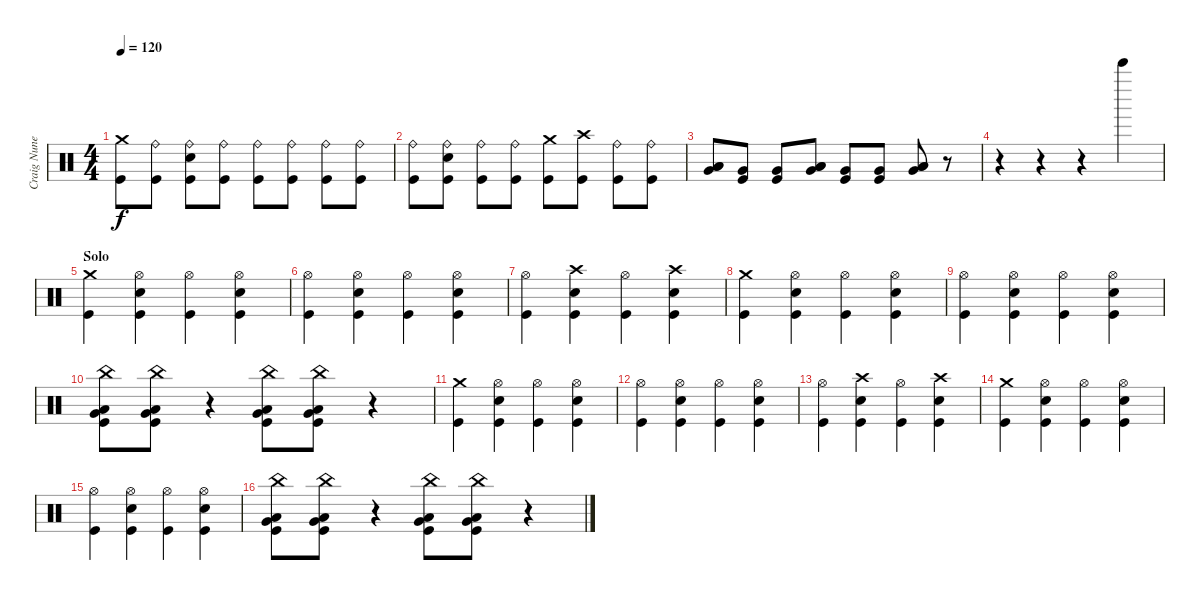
\track ("Craig Nunenmacher" "Craig Nune") {instrument percussion}
\staff {score}
\articulation defaults
\ts (4 4)
\tempo 120
\clef neutral
\ks c
("Crash medium (hit)" "Kick (hit)").8{dy f} ("Ride (bell)" "Kick (hit)").8 ("Ride (bell)" "Snare (hit) 2" "Kick (hit)").8 ("Ride (bell)" "Kick (hit)").8 ("Ride (bell)" "Kick (hit)").8 ("Ride (bell)" "Kick (hit)").8 ("Ride (bell)" "Kick (hit)").8 ("Ride (bell)" "Kick (hit)").8 |
("Ride (bell)" "Kick (hit)").8 ("Ride (bell)" "Snare (hit) 2" "Kick (hit)").8 ("Ride (bell)" "Kick (hit)").8 ("Ride (bell)" "Kick (hit)").8 ("Crash medium (hit)" "Kick (hit)").8 ("Crash high (hit)" "Kick (hit)").8 ("Ride (bell)" "Kick (hit)").8 ("Ride (bell)" "Kick (hit)").8 |
("Low Tom (hit)" "Low Tom (hit)" "Very Low Tom (hit)").8{bd 120} ("Very Low Tom (hit)" "Kick (hit)").8 ("Very Low Tom (hit)" "Kick (hit)").8 ("Low Tom (hit)" "Low Tom (hit)" "Very Low Tom (hit)").8{bd 120} ("Very Low Tom (hit)" "Kick (hit)").8 ("Very Low Tom (hit)" "Kick (hit)").8 ("Low Tom (hit)" "Low Tom (hit)" "Very Low Tom (hit)").8{bd 120} r.8 |
r.4 r.4 r.4 "Bell Tree (hit)".4 |
\section ("" "Solo")
("Crash medium (hit)" "Kick (hit)").4 ("Hi-Hat (open)" "Snare (hit) 2" "Kick (hit)").4 ("Hi-Hat (open)" "Kick (hit)").4 ("Hi-Hat (open)" "Snare (hit) 2" "Kick (hit)").4 |
("Hi-Hat (open)" "Kick (hit)").4 ("Hi-Hat (open)" "Snare (hit) 2" "Kick (hit)").4 ("Hi-Hat (open)" "Kick (hit)").4 ("Hi-Hat (open)" "Snare (hit) 2" "Kick (hit)").4 |
("Hi-Hat (open)" "Kick (hit)").4 ("Crash high (hit)" "Snare (hit) 2" "Kick (hit)").4 ("Hi-Hat (open)" "Kick (hit)").4 ("Crash high (hit)" "Snare (hit) 2" "Kick (hit)").4 |
("Crash medium (hit)" "Kick (hit)").4 ("Hi-Hat (open)" "Snare (hit) 2" "Kick (hit)").4 ("Hi-Hat (open)" "Kick (hit)").4 ("Hi-Hat (open)" "Snare (hit) 2" "Kick (hit)").4 |
("Hi-Hat (open)" "Kick (hit)").4 ("Hi-Hat (open)" "Snare (hit) 2" "Kick (hit)").4 ("Hi-Hat (open)" "Kick (hit)").4 ("Hi-Hat (open)" "Snare (hit) 2" "Kick (hit)").4 |
("China (hit)" "Low Tom (hit)" "Very Low Tom (hit)" "Kick (hit)").8 ("China (hit)" "Low Tom (hit)" "Very Low Tom (hit)" "Kick (hit)").8 r.4 ("China (hit)" "Low Tom (hit)" "Very Low Tom (hit)" "Kick (hit)").8 ("China (hit)" "Low Tom (hit)" "Very Low Tom (hit)" "Kick (hit)").8 r.4 |
("Crash medium (hit)" "Kick (hit)").4 ("Hi-Hat (open)" "Snare (hit) 2" "Kick (hit)").4 ("Hi-Hat (open)" "Kick (hit)").4 ("Hi-Hat (open)" "Snare (hit) 2" "Kick (hit)").4 |
("Hi-Hat (open)" "Kick (hit)").4 ("Hi-Hat (open)" "Snare (hit) 2" "Kick (hit)").4 ("Hi-Hat (open)" "Kick (hit)").4 ("Hi-Hat (open)" "Snare (hit) 2" "Kick (hit)").4 |
("Hi-Hat (open)" "Kick (hit)").4 ("Crash high (hit)" "Snare (hit) 2" "Kick (hit)").4 ("Hi-Hat (open)" "Kick (hit)").4 ("Crash high (hit)" "Snare (hit) 2" "Kick (hit)").4 |
("Crash medium (hit)" "Kick (hit)").4 ("Hi-Hat (open)" "Snare (hit) 2" "Kick (hit)").4 ("Hi-Hat (open)" "Kick (hit)").4 ("Hi-Hat (open)" "Snare (hit) 2" "Kick (hit)").4 |
("Hi-Hat (open)" "Kick (hit)").4 ("Hi-Hat (open)" "Snare (hit) 2" "Kick (hit)").4 ("Hi-Hat (open)" "Kick (hit)").4 ("Hi-Hat (open)" "Snare (hit) 2" "Kick (hit)").4 |
("China (hit)" "Low Tom (hit)" "Very Low Tom (hit)" "Kick (hit)").8 ("China (hit)" "Low Tom (hit)" "Very Low Tom (hit)" "Kick (hit)").8 r.4 ("China (hit)" "Low Tom (hit)" "Very Low Tom (hit)" "Kick (hit)").8 ("China (hit)" "Low Tom (hit)" "Very Low Tom (hit)" "Kick (hit)").8 r.4
